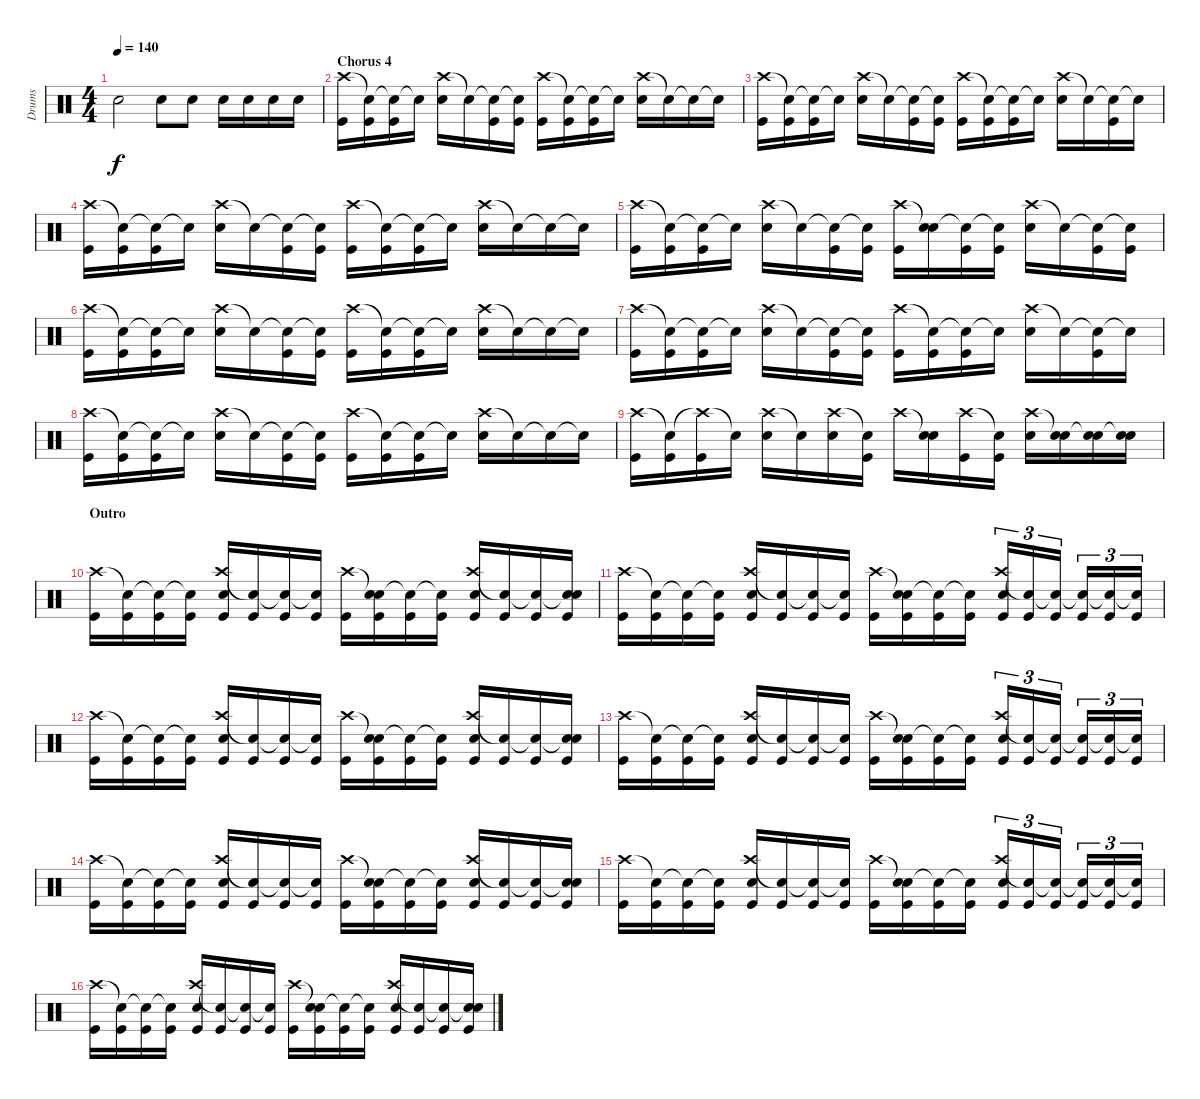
\track ("Drums" "Drums") {instrument percussion}
\staff {score}
\articulation defaults
\ts (4 4)
\tempo 140
\clef neutral
\ks c "Snare (hit)"{t}.2{dy f} "Electric Snare (hit)".8 "Electric Snare (hit)".8 "Electric Snare (hit)".16 "Electric Snare (hit)".16 "Electric Snare (hit)".16 "Electric Snare (hit)".16
|
\section ("" "Chorus 4")
("Crash high (hit)" "Kick (hit)").16 ("Snare (hit)"{t} "Kick (hit)").16 ("Snare (hit)"{t} "Kick (hit)").16 "Snare (hit)"{t}.16 ("Crash high (hit)" "Electric Snare (hit)").16 "Snare (hit)"{t}.16 ("Snare (hit)"{t} "Kick (hit)").16 ("Snare (hit)"{t} "Kick (hit)").16 ("Crash high (hit)" "Kick (hit)").16 ("Snare (hit)"{t} "Kick (hit)").16 ("Snare (hit)"{t} "Kick (hit)").16 "Snare (hit)"{t}.16 ("Crash high (hit)" "Electric Snare (hit)").16 "Snare (hit)"{t}.16 "Snare (hit)"{t}.16 "Snare (hit)"{t}.16 |
("Crash high (hit)" "Kick (hit)").16 ("Snare (hit)"{t} "Kick (hit)").16 ("Snare (hit)"{t} "Kick (hit)").16 "Snare (hit)"{t}.16 ("Crash high (hit)" "Electric Snare (hit)").16 "Snare (hit)"{t}.16 ("Snare (hit)"{t} "Kick (hit)").16 ("Snare (hit)"{t} "Kick (hit)").16 ("Crash high (hit)" "Kick (hit)").16 ("Snare (hit)"{t} "Kick (hit)").16 ("Snare (hit)"{t} "Kick (hit)").16 "Snare (hit)"{t}.16 ("Crash high (hit)" "Electric Snare (hit)").16 "Snare (hit)"{t}.16 ("Snare (hit)"{t} "Kick (hit)").16 "Snare (hit)"{t}.16 |
("Crash high (hit)" "Kick (hit)").16 ("Snare (hit)"{t} "Kick (hit)").16 ("Snare (hit)"{t} "Kick (hit)").16 "Snare (hit)"{t}.16 ("Crash high (hit)" "Electric Snare (hit)").16 "Snare (hit)"{t}.16 ("Snare (hit)"{t} "Kick (hit)").16 ("Snare (hit)"{t} "Kick (hit)").16 ("Crash high (hit)" "Kick (hit)").16 ("Snare (hit)"{t} "Kick (hit)").16 ("Snare (hit)"{t} "Kick (hit)").16 "Snare (hit)"{t}.16 ("Crash high (hit)" "Electric Snare (hit)").16 "Snare (hit)"{t}.16 "Snare (hit)"{t}.16 "Snare (hit)"{t}.16 |
("Crash high (hit)" "Kick (hit)").16 ("Snare (hit)"{t} "Kick (hit)").16 ("Snare (hit)"{t} "Kick (hit)").16 "Snare (hit)"{t}.16 ("Crash high (hit)" "Electric Snare (hit)").16 "Snare (hit)"{t}.16 ("Snare (hit)"{t} "Kick (hit)").16 ("Snare (hit)"{t} "Kick (hit)").16 ("Crash high (hit)" "Kick (hit)").16 ("Snare (hit)"{t} "Electric Snare (hit)").16 ("Snare (hit)"{t} "Kick (hit)").16 ("Snare (hit)"{t} "Kick (hit)").16 ("Crash high (hit)" "Electric Snare (hit)").16 "Snare (hit)"{t}.16 ("Snare (hit)"{t} "Kick (hit)").16 ("Snare (hit)"{t} "Kick (hit)").16 |
("Crash high (hit)" "Kick (hit)").16 ("Snare (hit)"{t} "Kick (hit)").16 ("Snare (hit)"{t} "Kick (hit)").16 "Snare (hit)"{t}.16 ("Crash high (hit)" "Electric Snare (hit)").16 "Snare (hit)"{t}.16 ("Snare (hit)"{t} "Kick (hit)").16 ("Snare (hit)"{t} "Kick (hit)").16 ("Crash high (hit)" "Kick (hit)").16 ("Snare (hit)"{t} "Kick (hit)").16 ("Snare (hit)"{t} "Kick (hit)").16 "Snare (hit)"{t}.16 ("Crash high (hit)" "Electric Snare (hit)").16 "Snare (hit)"{t}.16 "Snare (hit)"{t}.16 "Snare (hit)"{t}.16 |
("Crash high (hit)" "Kick (hit)").16 ("Snare (hit)"{t} "Kick (hit)").16 ("Snare (hit)"{t} "Kick (hit)").16 "Snare (hit)"{t}.16 ("Crash high (hit)" "Electric Snare (hit)").16 "Snare (hit)"{t}.16 ("Snare (hit)"{t} "Kick (hit)").16 ("Snare (hit)"{t} "Kick (hit)").16 ("Crash high (hit)" "Kick (hit)").16 ("Snare (hit)"{t} "Kick (hit)").16 ("Snare (hit)"{t} "Kick (hit)").16 "Snare (hit)"{t}.16 ("Crash high (hit)" "Electric Snare (hit)").16 "Snare (hit)"{t}.16 ("Snare (hit)"{t} "Kick (hit)").16 "Snare (hit)"{t}.16 |
("Crash high (hit)" "Kick (hit)").16 ("Snare (hit)"{t} "Kick (hit)").16 ("Snare (hit)"{t} "Kick (hit)").16 "Snare (hit)"{t}.16 ("Crash high (hit)" "Electric Snare (hit)").16 "Snare (hit)"{t}.16 ("Snare (hit)"{t} "Kick (hit)").16 ("Snare (hit)"{t} "Kick (hit)").16 ("Crash high (hit)" "Kick (hit)").16 ("Snare (hit)"{t} "Kick (hit)").16 ("Snare (hit)"{t} "Kick (hit)").16 "Snare (hit)"{t}.16 ("Crash high (hit)" "Electric Snare (hit)").16 "Snare (hit)"{t}.16 "Snare (hit)"{t}.16 "Snare (hit)"{t}.16 |
("Crash high (hit)" "Kick (hit)").16 ("Snare (hit)"{t} "Kick (hit)").16 ("Crash high (hit)"{t} "Kick (hit)").16 "Snare (hit)"{t}.16 ("Crash high (hit)" "Electric Snare (hit)").16 "Snare (hit)"{t}.16 ("Crash high (hit)" "Electric Snare (hit)").16 ("Snare (hit)"{t} "Kick (hit)").16 "Crash high (hit)".16 ("Snare (hit)"{t} "Electric Snare (hit)").16 ("Crash high (hit)" "Kick (hit)").16 ("Snare (hit)"{t} "Kick (hit)").16 ("Crash high (hit)" "Electric Snare (hit)").16 ("Snare (hit)"{t} "Electric Snare (hit)").16 ("Snare (hit)"{t} "Electric Snare (hit)").16 ("Snare (hit)"{t} "Electric Snare (hit)").16 |
\section ("" "Outro")
("Crash high (hit)" "Kick (hit)").16 ("Snare (hit)"{t} "Kick (hit)").16 ("Snare (hit)"{t} "Kick (hit)").16 ("Snare (hit)"{t} "Kick (hit)").16 ("Crash high (hit)" "Electric Snare (hit)" "Kick (hit)").16 ("Snare (hit)"{t} "Kick (hit)").16 ("Snare (hit)"{t} "Kick (hit)").16 ("Snare (hit)"{t} "Kick (hit)").16 ("Crash high (hit)" "Kick (hit)").16 ("Snare (hit)"{t} "Electric Snare (hit)" "Kick (hit)").16 ("Snare (hit)"{t} "Kick (hit)").16 ("Snare (hit)"{t} "Kick (hit)").16 ("Crash high (hit)" "Electric Snare (hit)" "Kick (hit)").16 ("Snare (hit)"{t} "Kick (hit)").16 ("Snare (hit)"{t} "Kick (hit)").16 ("Snare (hit)"{t} "Electric Snare (hit)" "Kick (hit)").16 |
("Crash high (hit)" "Kick (hit)").16 ("Snare (hit)"{t} "Kick (hit)").16 ("Snare (hit)"{t} "Kick (hit)").16 ("Snare (hit)"{t} "Kick (hit)").16 ("Crash high (hit)" "Electric Snare (hit)" "Kick (hit)").16 ("Snare (hit)"{t} "Kick (hit)").16 ("Snare (hit)"{t} "Kick (hit)").16 ("Snare (hit)"{t} "Kick (hit)").16 ("Crash high (hit)" "Kick (hit)").16 ("Snare (hit)"{t} "Electric Snare (hit)" "Kick (hit)").16 ("Snare (hit)"{t} "Kick (hit)").16 ("Snare (hit)"{t} "Kick (hit)").16 ("Crash high (hit)" "Electric Snare (hit)" "Kick (hit)").16{tu (3 2)} ("Snare (hit)"{t} "Kick (hit)").16{tu (3 2)} ("Snare (hit)"{t} "Kick (hit)").16{tu (3 2)} ("Snare (hit)"{t} "Kick (hit)").16{tu (3 2)} ("Snare (hit)"{t} "Kick (hit)").16{tu (3 2)} ("Snare (hit)"{t} "Kick (hit)").16{tu (3 2)} |
("Crash high (hit)" "Kick (hit)").16 ("Snare (hit)"{t} "Kick (hit)").16 ("Snare (hit)"{t} "Kick (hit)").16 ("Snare (hit)"{t} "Kick (hit)").16 ("Crash high (hit)" "Electric Snare (hit)" "Kick (hit)").16 ("Snare (hit)"{t} "Kick (hit)").16 ("Snare (hit)"{t} "Kick (hit)").16 ("Snare (hit)"{t} "Kick (hit)").16 ("Crash high (hit)" "Kick (hit)").16 ("Snare (hit)"{t} "Electric Snare (hit)" "Kick (hit)").16 ("Snare (hit)"{t} "Kick (hit)").16 ("Snare (hit)"{t} "Kick (hit)").16 ("Crash high (hit)" "Electric Snare (hit)" "Kick (hit)").16 ("Snare (hit)"{t} "Kick (hit)").16 ("Snare (hit)"{t} "Kick (hit)").16 ("Snare (hit)"{t} "Electric Snare (hit)" "Kick (hit)").16 |
("Crash high (hit)" "Kick (hit)").16 ("Snare (hit)"{t} "Kick (hit)").16 ("Snare (hit)"{t} "Kick (hit)").16 ("Snare (hit)"{t} "Kick (hit)").16 ("Crash high (hit)" "Electric Snare (hit)" "Kick (hit)").16 ("Snare (hit)"{t} "Kick (hit)").16 ("Snare (hit)"{t} "Kick (hit)").16 ("Snare (hit)"{t} "Kick (hit)").16 ("Crash high (hit)" "Kick (hit)").16 ("Snare (hit)"{t} "Electric Snare (hit)" "Kick (hit)").16 ("Snare (hit)"{t} "Kick (hit)").16 ("Snare (hit)"{t} "Kick (hit)").16 ("Crash high (hit)" "Electric Snare (hit)" "Kick (hit)").16{tu (3 2)} ("Snare (hit)"{t} "Kick (hit)").16{tu (3 2)} ("Snare (hit)"{t} "Kick (hit)").16{tu (3 2)} ("Snare (hit)"{t} "Kick (hit)").16{tu (3 2)} ("Snare (hit)"{t} "Kick (hit)").16{tu (3 2)} ("Snare (hit)"{t} "Kick (hit)").16{tu (3 2)} |
("Crash high (hit)" "Kick (hit)").16 ("Snare (hit)"{t} "Kick (hit)").16 ("Snare (hit)"{t} "Kick (hit)").16 ("Snare (hit)"{t} "Kick (hit)").16 ("Crash high (hit)" "Electric Snare (hit)" "Kick (hit)").16 ("Snare (hit)"{t} "Kick (hit)").16 ("Snare (hit)"{t} "Kick (hit)").16 ("Snare (hit)"{t} "Kick (hit)").16 ("Crash high (hit)" "Kick (hit)").16 ("Snare (hit)"{t} "Electric Snare (hit)" "Kick (hit)").16 ("Snare (hit)"{t} "Kick (hit)").16 ("Snare (hit)"{t} "Kick (hit)").16 ("Crash high (hit)" "Electric Snare (hit)" "Kick (hit)").16 ("Snare (hit)"{t} "Kick (hit)").16 ("Snare (hit)"{t} "Kick (hit)").16 ("Snare (hit)"{t} "Electric Snare (hit)" "Kick (hit)").16 |
("Crash high (hit)" "Kick (hit)").16 ("Snare (hit)"{t} "Kick (hit)").16 ("Snare (hit)"{t} "Kick (hit)").16 ("Snare (hit)"{t} "Kick (hit)").16 ("Crash high (hit)" "Electric Snare (hit)" "Kick (hit)").16 ("Snare (hit)"{t} "Kick (hit)").16 ("Snare (hit)"{t} "Kick (hit)").16 ("Snare (hit)"{t} "Kick (hit)").16 ("Crash high (hit)" "Kick (hit)").16 ("Snare (hit)"{t} "Electric Snare (hit)" "Kick (hit)").16 ("Snare (hit)"{t} "Kick (hit)").16 ("Snare (hit)"{t} "Kick (hit)").16 ("Crash high (hit)" "Electric Snare (hit)" "Kick (hit)").16{tu (3 2)} ("Snare (hit)"{t} "Kick (hit)").16{tu (3 2)} ("Snare (hit)"{t} "Kick (hit)").16{tu (3 2)} ("Snare (hit)"{t} "Kick (hit)").16{tu (3 2)} ("Snare (hit)"{t} "Kick (hit)").16{tu (3 2)} ("Snare (hit)"{t} "Kick (hit)").16{tu (3 2)} |
("Crash high (hit)" "Kick (hit)").16 ("Snare (hit)"{t} "Kick (hit)").16 ("Snare (hit)"{t} "Kick (hit)").16 ("Snare (hit)"{t} "Kick (hit)").16 ("Crash high (hit)" "Electric Snare (hit)" "Kick (hit)").16 ("Snare (hit)"{t} "Kick (hit)").16 ("Snare (hit)"{t} "Kick (hit)").16 ("Snare (hit)"{t} "Kick (hit)").16 ("Crash high (hit)" "Kick (hit)").16 ("Snare (hit)"{t} "Electric Snare (hit)" "Kick (hit)").16 ("Snare (hit)"{t} "Kick (hit)").16 ("Snare (hit)"{t} "Kick (hit)").16 ("Crash high (hit)" "Electric Snare (hit)" "Kick (hit)").16 ("Snare (hit)"{t} "Kick (hit)").16 ("Snare (hit)"{t} "Kick (hit)").16 ("Snare (hit)"{t} "Electric Snare (hit)" "Kick (hit)").16
